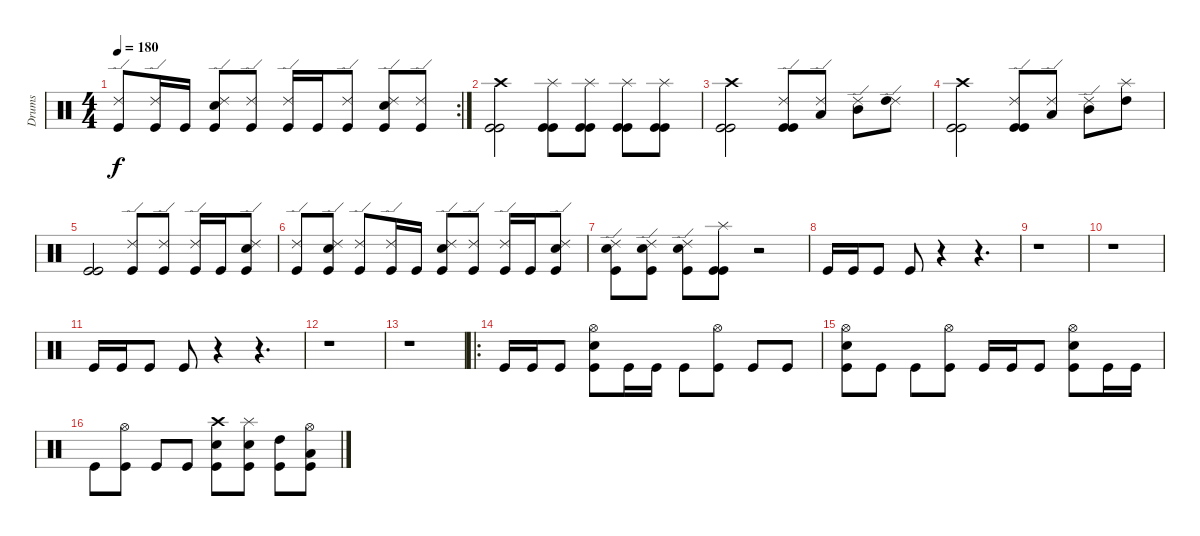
\track ("Drums" "Drums") {instrument percussion}
\staff {score}
\articulation defaults
\rc 2
\ts (4 4)
\tempo 180
\clef neutral
\ks c
("Ride (edge) 2" "Kick (hit)").8{dy f} ("Ride (edge) 2" "Kick (hit)").16 "Kick (hit)".16 ("Ride (edge) 2" "Snare (hit) 2" "Kick (hit)").8 ("Ride (edge) 2" "Kick (hit)").8 ("Ride (edge) 2" "Kick (hit)").16 "Kick (hit)".16 ("Ride (edge) 2" "Kick (hit)").8 ("Ride (edge) 2" "Snare (hit) 2" "Kick (hit)").8 ("Ride (edge) 2" "Kick (hit)").8 |
("Crash high (hit)" "Kick (hit)" "Kick (hit)").2 ("Splash (hit)" "Kick (hit)" "Kick (hit)").8 ("Splash (hit)" "Kick (hit)" "Kick (hit)").8 ("Splash (hit)" "Kick (hit)" "Kick (hit)").8 ("Splash (hit)" "Kick (hit)" "Kick (hit)").8 |
("Crash high (hit)" "Kick (hit)" "Kick (hit)").2 ("Ride (edge) 2" "Kick (hit)" "Kick (hit)").8 ("Ride (edge) 2" "Low Tom (hit)").8 ("Ride (edge) 2" "Mid Tom (hit)").8 ("Ride (edge) 2" "High Tom (hit)").8 |
("Crash high (hit)" "Kick (hit)" "Kick (hit)").2 ("Ride (edge) 2" "Kick (hit)" "Kick (hit)").8 ("Ride (edge) 2" "Low Tom (hit)").8 ("Ride (edge) 2" "Mid Tom (hit)").8 ("Splash (hit)" "High Tom (hit)").8 |
("Kick (hit)" "Kick (hit)").2 ("Ride (edge) 2" "Kick (hit)").8 ("Ride (edge) 2" "Kick (hit)").8 ("Ride (edge) 2" "Kick (hit)").16 "Kick (hit)".16 ("Ride (edge) 2" "Snare (hit) 2" "Kick (hit)").8 |
("Ride (edge) 2" "Kick (hit)").8 ("Ride (edge) 2" "Snare (hit) 2" "Kick (hit)").8 ("Ride (edge) 2" "Kick (hit)").8 ("Ride (edge) 2" "Kick (hit)").16 "Kick (hit)".16 ("Ride (edge) 2" "Snare (hit) 2" "Kick (hit)").8 ("Ride (edge) 2" "Kick (hit)").8 ("Ride (edge) 2" "Kick (hit)").16 "Kick (hit)".16 ("Ride (edge) 2" "Snare (hit) 2" "Kick (hit)").8 |
("Ride (edge) 2" "Snare (hit) 2" "Kick (hit)").8 ("Ride (edge) 2" "Snare (hit) 2" "Kick (hit)").8 ("Ride (edge) 2" "Snare (hit) 2" "Kick (hit)").8 ("Splash (hit)" "Kick (hit)" "Kick (hit)").8 r.2 |
"Kick (hit)".16 "Kick (hit)".16 "Kick (hit)".8 "Kick (hit)".8 r.4 r.4{d} |
r.1 |
r.1 |
"Kick (hit)".16 "Kick (hit)".16 "Kick (hit)".8 "Kick (hit)".8 r.4 r.4{d} |
r.1 |
r.1 |
\ro "Kick (hit)".16 "Kick (hit)".16 "Kick (hit)".8
("Hi-Hat (open)" "Snare (hit) 2" "Kick (hit)").8 "Kick (hit)".16 "Kick (hit)".16 "Kick (hit)".8 ("Hi-Hat (open)" "Kick (hit)").8 "Kick (hit)".8 "Kick (hit)".8 |
("Hi-Hat (open)" "Snare (hit) 2" "Kick (hit)").8 "Kick (hit)".8 "Kick (hit)".8 ("Hi-Hat (open)" "Kick (hit)").8 "Kick (hit)".16 "Kick (hit)".16 "Kick (hit)".8 ("Hi-Hat (open)" "Snare (hit) 2" "Kick (hit)").8 "Kick (hit)".16 "Kick (hit)".16 |
"Kick (hit)".8 ("Hi-Hat (open)" "Kick (hit)").8 "Kick (hit)".8 "Kick (hit)".8 ("Crash high (hit)" "Snare (hit) 2" "Kick (hit)").8 ("Splash (hit)" "Snare (hit) 2" "Kick (hit)").8 ("High Tom (hit)" "Kick (hit)").8 ("Hi-Hat (open)" "Low Tom (hit)" "Kick (hit)").8
